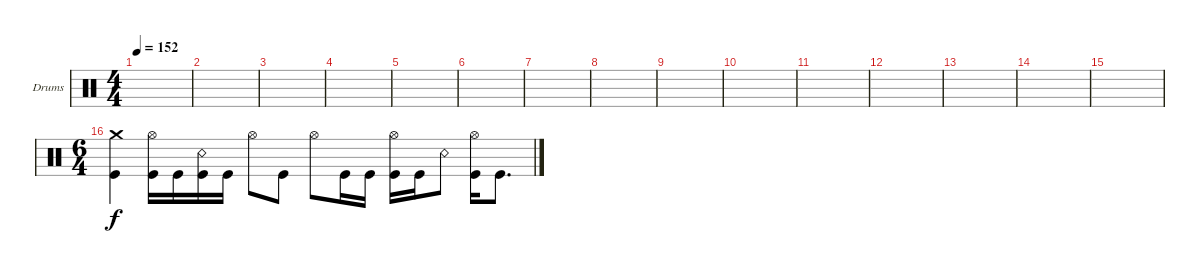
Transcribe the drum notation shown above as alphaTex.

\defaultSystemsLayout 4
\bracketExtendMode groupsimilarinstruments
\firstSystemTrackNameOrientation horizontal
\otherSystemsTrackNameOrientation horizontal
\track ("Drumkit" "Drums") {instrument percussion}
\staff {score}
\articulation defaults
\ts (4 4)
\tempo 152
\clef neutral
\ks c
|
|
|
|
|
|
|
|
|
|
|
|
|
|
|
\ts (6 4)
("Crash medium (hit)" "Kick (hit)").4 ("Hi-Hat (open)" "Kick (hit)").16 "Kick (hit)".16 ("Kick (hit)" "Snare (rim shot)").16 "Kick (hit)".16 "Hi-Hat (open)".8 "Kick (hit)".8 "Hi-Hat (open)".8 "Kick (hit)".16 "Kick (hit)".16 ("Kick (hit)" "Hi-Hat (open)").16 "Kick (hit)".16 "Snare (rim shot)".8 ("Hi-Hat (open)" "Kick (hit)").16 "Kick (hit)".8{d}
